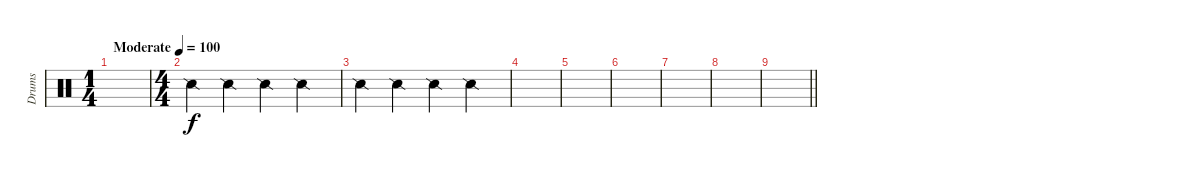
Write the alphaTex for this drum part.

\track ("Drums" "Drums") {instrument percussion}
\staff {score}
\articulation defaults
\ts (1 4)
\tempo (100 "Moderate")
\clef neutral
\ks c
|
\ts (4 4)
"Snare (side stick) 2".4 "Snare (side stick) 2".4 "Snare (side stick) 2".4 "Snare (side stick) 2".4 |
"Snare (side stick) 2".4 "Snare (side stick) 2".4 "Snare (side stick) 2".4 "Snare (side stick) 2".4 |
|
|
|
|
|
\barLineRight lightlight
